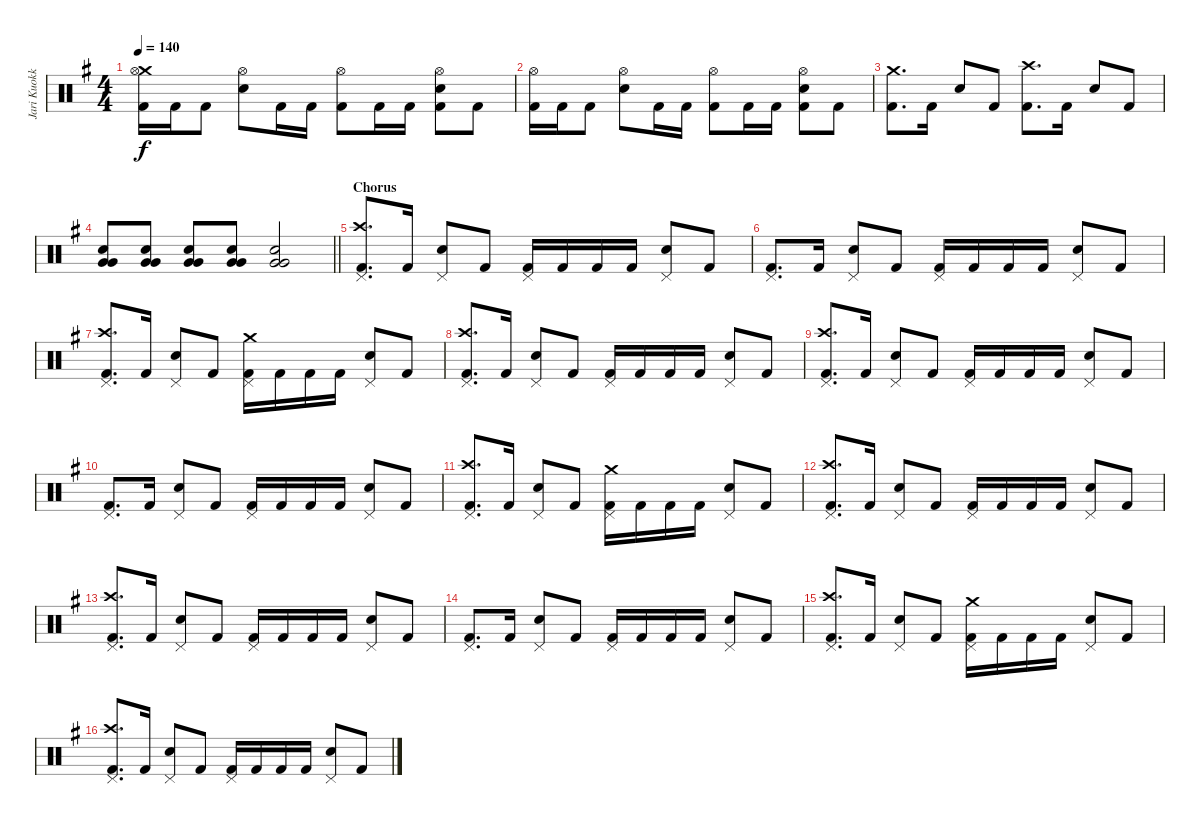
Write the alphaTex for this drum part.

\track ("Jari Kuokkanen" "Jari Kuokk") {instrument percussion}
\staff {score}
\articulation defaults
\ts (4 4)
\tempo 140
\clef neutral
\ks eminor
("Crash medium (hit)" "Hi-Hat (open)" "Kick (hit) 2").16{dy f} "Kick (hit) 2".16 "Kick (hit) 2".8 ("Hi-Hat (open)" "Snare (hit) 2").8 "Kick (hit) 2".16 "Kick (hit) 2".16 ("Hi-Hat (open)" "Kick (hit) 2").8 "Kick (hit) 2".16 "Kick (hit) 2".16 ("Hi-Hat (open)" "Snare (hit) 2" "Kick (hit) 2").8 "Kick (hit) 2".8 |
("Hi-Hat (open)" "Kick (hit) 2").16 "Kick (hit) 2".16 "Kick (hit) 2".8 ("Hi-Hat (open)" "Snare (hit) 2").8 "Kick (hit) 2".16 "Kick (hit) 2".16 ("Hi-Hat (open)" "Kick (hit) 2").8 "Kick (hit) 2".16 "Kick (hit) 2".16 ("Hi-Hat (open)" "Snare (hit) 2" "Kick (hit) 2").8 "Kick (hit) 2".8 |
("Crash medium (hit)" "Kick (hit) 2").8{d} "Kick (hit) 2".16 "Snare (hit) 2".8 "Kick (hit) 2".8 ("Crash high (hit)" "Kick (hit) 2").8{d} "Kick (hit) 2".16 "Snare (hit) 2".8 "Kick (hit) 2".8 |
\barLineRight lightlight
("Snare (hit) 2" "Very Low Tom (hit)" "Very Low Tom (hit)").8 ("Snare (hit) 2" "Very Low Tom (hit)" "Very Low Tom (hit)").8 ("Snare (hit) 2" "Very Low Tom (hit)" "Very Low Tom (hit)").8 ("Snare (hit) 2" "Very Low Tom (hit)" "Very Low Tom (hit)").8 ("Snare (hit) 2" "Very Low Tom (hit)" "Very Low Tom (hit)").2 |
\section ("" "Chorus")
("Pedal Hi-Hat (hit)" "Crash high (hit)" "Kick (hit) 2").8{d} "Kick (hit) 2".16 ("Pedal Hi-Hat (hit)" "Snare (hit) 2").8 "Kick (hit) 2".8 ("Pedal Hi-Hat (hit)" "Kick (hit) 2").16 "Kick (hit) 2".16 "Kick (hit) 2".16 "Kick (hit) 2".16 ("Pedal Hi-Hat (hit)" "Snare (hit) 2").8 "Kick (hit) 2".8 |
("Pedal Hi-Hat (hit)" "Kick (hit) 2").8{d} "Kick (hit) 2".16 ("Pedal Hi-Hat (hit)" "Snare (hit) 2").8 "Kick (hit) 2".8 ("Pedal Hi-Hat (hit)" "Kick (hit) 2").16 "Kick (hit) 2".16 "Kick (hit) 2".16 "Kick (hit) 2".16 ("Pedal Hi-Hat (hit)" "Snare (hit) 2").8 "Kick (hit) 2".8 |
("Crash high (hit)" "Pedal Hi-Hat (hit)" "Kick (hit) 2").8{d} "Kick (hit) 2".16 ("Pedal Hi-Hat (hit)" "Snare (hit) 2").8 "Kick (hit) 2".8 ("Crash medium (hit)" "Pedal Hi-Hat (hit)" "Kick (hit) 2").16 "Kick (hit) 2".16 "Kick (hit) 2".16 "Kick (hit) 2".16 ("Pedal Hi-Hat (hit)" "Snare (hit) 2").8 "Kick (hit) 2".8 |
("Crash high (hit)" "Pedal Hi-Hat (hit)" "Kick (hit) 2").8{d} "Kick (hit) 2".16 ("Pedal Hi-Hat (hit)" "Snare (hit) 2").8 "Kick (hit) 2".8 ("Pedal Hi-Hat (hit)" "Kick (hit) 2").16 "Kick (hit) 2".16 "Kick (hit) 2".16 "Kick (hit) 2".16 ("Pedal Hi-Hat (hit)" "Snare (hit) 2").8 "Kick (hit) 2".8 |
("Pedal Hi-Hat (hit)" "Crash high (hit)" "Kick (hit) 2").8{d} "Kick (hit) 2".16 ("Pedal Hi-Hat (hit)" "Snare (hit) 2").8 "Kick (hit) 2".8 ("Pedal Hi-Hat (hit)" "Kick (hit) 2").16 "Kick (hit) 2".16 "Kick (hit) 2".16 "Kick (hit) 2".16 ("Pedal Hi-Hat (hit)" "Snare (hit) 2").8 "Kick (hit) 2".8 |
("Pedal Hi-Hat (hit)" "Kick (hit) 2").8{d} "Kick (hit) 2".16 ("Pedal Hi-Hat (hit)" "Snare (hit) 2").8 "Kick (hit) 2".8 ("Pedal Hi-Hat (hit)" "Kick (hit) 2").16 "Kick (hit) 2".16 "Kick (hit) 2".16 "Kick (hit) 2".16 ("Pedal Hi-Hat (hit)" "Snare (hit) 2").8 "Kick (hit) 2".8 |
("Crash high (hit)" "Pedal Hi-Hat (hit)" "Kick (hit) 2").8{d} "Kick (hit) 2".16 ("Pedal Hi-Hat (hit)" "Snare (hit) 2").8 "Kick (hit) 2".8 ("Crash medium (hit)" "Pedal Hi-Hat (hit)" "Kick (hit) 2").16 "Kick (hit) 2".16 "Kick (hit) 2".16 "Kick (hit) 2".16 ("Pedal Hi-Hat (hit)" "Snare (hit) 2").8 "Kick (hit) 2".8 |
("Crash high (hit)" "Pedal Hi-Hat (hit)" "Kick (hit) 2").8{d} "Kick (hit) 2".16 ("Pedal Hi-Hat (hit)" "Snare (hit) 2").8 "Kick (hit) 2".8 ("Pedal Hi-Hat (hit)" "Kick (hit) 2").16 "Kick (hit) 2".16 "Kick (hit) 2".16 "Kick (hit) 2".16 ("Pedal Hi-Hat (hit)" "Snare (hit) 2").8 "Kick (hit) 2".8 |
("Pedal Hi-Hat (hit)" "Crash high (hit)" "Kick (hit) 2").8{d} "Kick (hit) 2".16 ("Pedal Hi-Hat (hit)" "Snare (hit) 2").8 "Kick (hit) 2".8 ("Pedal Hi-Hat (hit)" "Kick (hit) 2").16 "Kick (hit) 2".16 "Kick (hit) 2".16 "Kick (hit) 2".16 ("Pedal Hi-Hat (hit)" "Snare (hit) 2").8 "Kick (hit) 2".8 |
("Pedal Hi-Hat (hit)" "Kick (hit) 2").8{d} "Kick (hit) 2".16 ("Pedal Hi-Hat (hit)" "Snare (hit) 2").8 "Kick (hit) 2".8 ("Pedal Hi-Hat (hit)" "Kick (hit) 2").16 "Kick (hit) 2".16 "Kick (hit) 2".16 "Kick (hit) 2".16 ("Pedal Hi-Hat (hit)" "Snare (hit) 2").8 "Kick (hit) 2".8 |
("Crash high (hit)" "Pedal Hi-Hat (hit)" "Kick (hit) 2").8{d} "Kick (hit) 2".16 ("Pedal Hi-Hat (hit)" "Snare (hit) 2").8 "Kick (hit) 2".8 ("Crash medium (hit)" "Pedal Hi-Hat (hit)" "Kick (hit) 2").16 "Kick (hit) 2".16 "Kick (hit) 2".16 "Kick (hit) 2".16 ("Pedal Hi-Hat (hit)" "Snare (hit) 2").8 "Kick (hit) 2".8 |
("Crash high (hit)" "Pedal Hi-Hat (hit)" "Kick (hit) 2").8{d} "Kick (hit) 2".16 ("Pedal Hi-Hat (hit)" "Snare (hit) 2").8 "Kick (hit) 2".8 ("Pedal Hi-Hat (hit)" "Kick (hit) 2").16 "Kick (hit) 2".16 "Kick (hit) 2".16 "Kick (hit) 2".16 ("Pedal Hi-Hat (hit)" "Snare (hit) 2").8 "Kick (hit) 2".8
